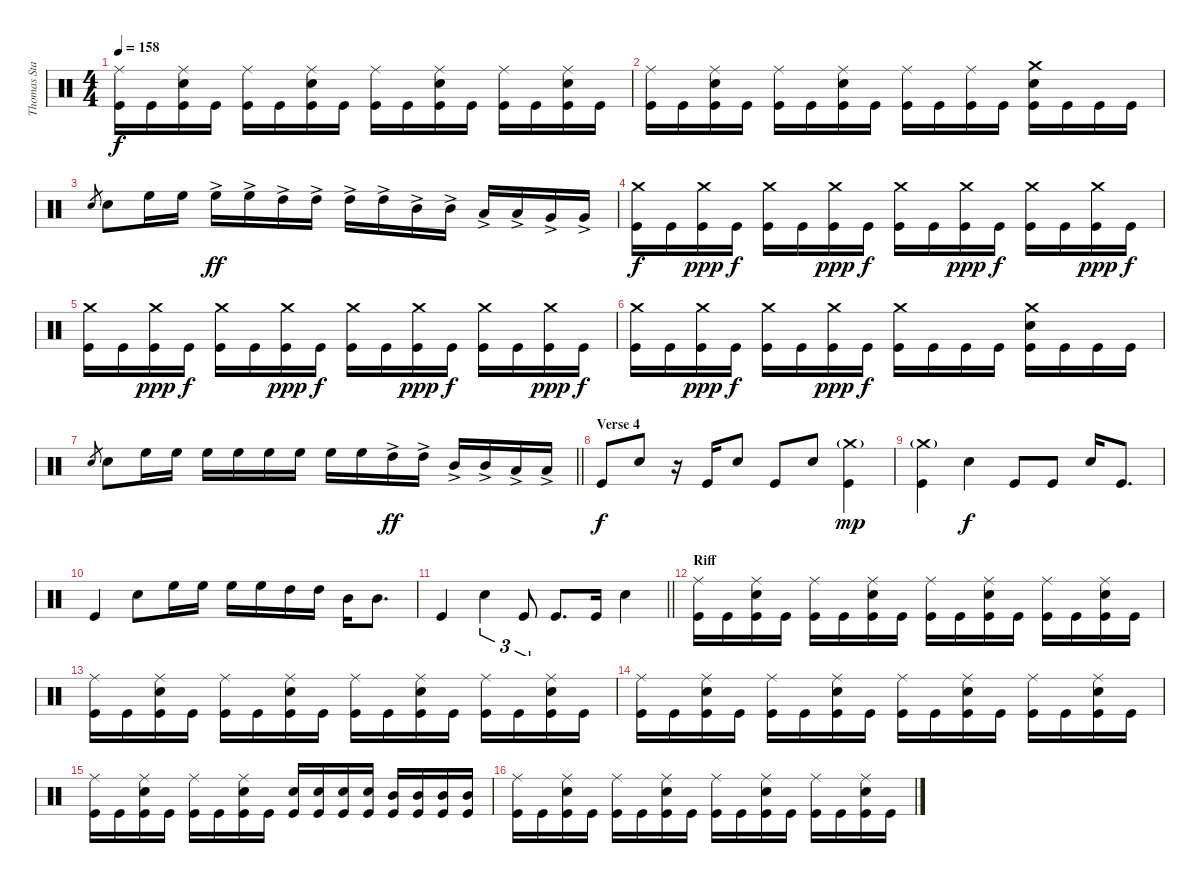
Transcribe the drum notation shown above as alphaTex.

\track ("Thomas Stauch" "Thomas Sta") {instrument percussion}
\staff {score}
\articulation defaults
\ts (4 4)
\tempo 158
\clef neutral
\ks c
("Ride (middle)" "Kick (hit)").16{dy f} "Kick (hit)".16 ("Ride (middle)" "Electric Snare (hit)" "Kick (hit)").16 "Kick (hit)".16 ("Ride (middle)" "Kick (hit)").16 "Kick (hit)".16 ("Ride (middle)" "Electric Snare (hit)" "Kick (hit)").16 "Kick (hit)".16 ("Ride (middle)" "Kick (hit)").16 "Kick (hit)".16 ("Ride (middle)" "Electric Snare (hit)" "Kick (hit)").16 "Kick (hit)".16 ("Ride (middle)" "Kick (hit)").16 "Kick (hit)".16 ("Ride (middle)" "Electric Snare (hit)" "Kick (hit)").16 "Kick (hit)".16 |
("Ride (middle)" "Kick (hit)").16 "Kick (hit)".16 ("Ride (middle)" "Electric Snare (hit)" "Kick (hit)").16 "Kick (hit)".16 ("Ride (middle)" "Kick (hit)").16 "Kick (hit)".16 ("Ride (middle)" "Electric Snare (hit)" "Kick (hit)").16 "Kick (hit)".16 ("Ride (middle)" "Kick (hit)").16 "Kick (hit)".16 ("Ride (middle)" "Kick (hit)").16 "Kick (hit)".16 ("Crash medium (hit)" "Electric Snare (hit)" "Kick (hit)").16 "Kick (hit)".16 "Kick (hit)".16 "Kick (hit)".16 |
"Electric Snare (hit)".8{gr} "Electric Snare (hit)".8 "High Floor Tom (hit)".16 "High Floor Tom (hit)".16 "High Floor Tom (hit)"{ac}.16{dy ff} "High Floor Tom (hit)"{ac}.16 "High Tom (hit)"{ac}.16 "High Tom (hit)"{ac}.16 "High Tom (hit)"{ac}.16 "High Tom (hit)"{ac}.16 "Mid Tom (hit)"{ac}.16 "Mid Tom (hit)"{ac}.16 "Low Tom (hit)"{ac}.16 "Low Tom (hit)"{ac}.16 "Very Low Tom (hit)"{ac}.16 "Very Low Tom (hit)"{ac}.16 |
("Crash medium (hit)" "Kick (hit)").16{dy f} "Kick (hit)".16 ("Crash medium (hit)" "Kick (hit)").16{dy ppp} "Kick (hit)".16{dy f} ("Crash medium (hit)" "Kick (hit)").16 "Kick (hit)".16 ("Crash medium (hit)" "Kick (hit)").16{dy ppp} "Kick (hit)".16{dy f} ("Crash medium (hit)" "Kick (hit)").16 "Kick (hit)".16 ("Crash medium (hit)" "Kick (hit)").16{dy ppp} "Kick (hit)".16{dy f} ("Crash medium (hit)" "Kick (hit)").16 "Kick (hit)".16 ("Crash medium (hit)" "Kick (hit)").16{dy ppp} "Kick (hit)".16{dy f} |
("Crash medium (hit)" "Kick (hit)").16 "Kick (hit)".16 ("Crash medium (hit)" "Kick (hit)").16{dy ppp} "Kick (hit)".16{dy f} ("Crash medium (hit)" "Kick (hit)").16 "Kick (hit)".16 ("Crash medium (hit)" "Kick (hit)").16{dy ppp} "Kick (hit)".16{dy f} ("Crash medium (hit)" "Kick (hit)").16 "Kick (hit)".16 ("Crash medium (hit)" "Kick (hit)").16{dy ppp} "Kick (hit)".16{dy f} ("Crash medium (hit)" "Kick (hit)").16 "Kick (hit)".16 ("Crash medium (hit)" "Kick (hit)").16{dy ppp} "Kick (hit)".16{dy f} |
("Crash medium (hit)" "Kick (hit)").16 "Kick (hit)".16 ("Crash medium (hit)" "Kick (hit)").16{dy ppp} "Kick (hit)".16{dy f} ("Crash medium (hit)" "Kick (hit)").16 "Kick (hit)".16 ("Crash medium (hit)" "Kick (hit)").16{dy ppp} "Kick (hit)".16{dy f} ("Crash medium (hit)" "Kick (hit)").16 "Kick (hit)".16 "Kick (hit)".16 "Kick (hit)".16 ("Crash medium (hit)" "Electric Snare (hit)" "Kick (hit)").16 "Kick (hit)".16 "Kick (hit)".16 "Kick (hit)".16 |
\barLineRight lightlight "Electric Snare (hit)".8{gr} "Electric Snare (hit)".8 "High Floor Tom (hit)".16 "High Floor Tom (hit)".16 "High Floor Tom (hit)".16 "High Floor Tom (hit)".16 "High Floor Tom (hit)".16 "High Floor Tom (hit)".16 "High Floor Tom (hit)".16 "High Floor Tom (hit)".16 "High Tom (hit)"{ac}.16{dy ff} "High Tom (hit)"{ac}.16 "Mid Tom (hit)"{ac}.16 "Mid Tom (hit)"{ac}.16 "Low Tom (hit)"{ac}.16 "Low Tom (hit)"{ac}.16
|
\section ("" "Verse 4")
"Kick (hit)".8{dy f} "Electric Snare (hit)".8 r.16 "Kick (hit)".16 "Electric Snare (hit)".8 "Kick (hit)".8 "Electric Snare (hit)".8 ("Crash medium (hit)"{g} "Kick (hit)").4{dy mp} |
("Crash medium (hit)"{g} "Kick (hit)").4 "Electric Snare (hit)".4{dy f} "Kick (hit)".8 "Kick (hit)".8 "Electric Snare (hit)".16 "Kick (hit)".8{d} |
"Kick (hit)".4 "Electric Snare (hit)".8 "High Floor Tom (hit)".16 "High Floor Tom (hit)".16 "High Floor Tom (hit)".16 "High Floor Tom (hit)".16 "High Tom (hit)".16 "High Tom (hit)".16 "Mid Tom (hit)".16 "Mid Tom (hit)".8{d} |
\barLineRight lightlight "Kick (hit)".4 "Electric Snare (hit)".4{tu (3 2)} "Kick (hit)".8{tu (3 2)} "Kick (hit)".8{d} "Kick (hit)".16 "Electric Snare (hit)".4
|
\section ("" "Riff ")
("Ride (middle)" "Kick (hit)").16 "Kick (hit)".16 ("Ride (middle)" "Electric Snare (hit)" "Kick (hit)").16 "Kick (hit)".16 ("Ride (middle)" "Kick (hit)").16 "Kick (hit)".16 ("Ride (middle)" "Electric Snare (hit)" "Kick (hit)").16 "Kick (hit)".16 ("Ride (middle)" "Kick (hit)").16 "Kick (hit)".16 ("Ride (middle)" "Electric Snare (hit)" "Kick (hit)").16 "Kick (hit)".16 ("Ride (middle)" "Kick (hit)").16 "Kick (hit)".16 ("Ride (middle)" "Electric Snare (hit)" "Kick (hit)").16 "Kick (hit)".16 |
("Ride (middle)" "Kick (hit)").16 "Kick (hit)".16 ("Ride (middle)" "Electric Snare (hit)" "Kick (hit)").16 "Kick (hit)".16 ("Ride (middle)" "Kick (hit)").16 "Kick (hit)".16 ("Ride (middle)" "Electric Snare (hit)" "Kick (hit)").16 "Kick (hit)".16 ("Ride (middle)" "Kick (hit)").16 "Kick (hit)".16 ("Ride (middle)" "Electric Snare (hit)" "Kick (hit)").16 "Kick (hit)".16 ("Ride (middle)" "Kick (hit)").16 "Kick (hit)".16 ("Ride (middle)" "Electric Snare (hit)" "Kick (hit)").16 "Kick (hit)".16 |
("Ride (middle)" "Kick (hit)").16 "Kick (hit)".16 ("Ride (middle)" "Electric Snare (hit)" "Kick (hit)").16 "Kick (hit)".16 ("Ride (middle)" "Kick (hit)").16 "Kick (hit)".16 ("Ride (middle)" "Electric Snare (hit)" "Kick (hit)").16 "Kick (hit)".16 ("Ride (middle)" "Kick (hit)").16 "Kick (hit)".16 ("Ride (middle)" "Electric Snare (hit)" "Kick (hit)").16 "Kick (hit)".16 ("Ride (middle)" "Kick (hit)").16 "Kick (hit)".16 ("Ride (middle)" "Electric Snare (hit)" "Kick (hit)").16 "Kick (hit)".16 |
("Ride (middle)" "Kick (hit)").16 "Kick (hit)".16 ("Ride (middle)" "Electric Snare (hit)" "Kick (hit)").16 "Kick (hit)".16 ("Ride (middle)" "Kick (hit)").16 "Kick (hit)".16 ("Ride (middle)" "Electric Snare (hit)" "Kick (hit)").16 "Kick (hit)".16 ("Electric Snare (hit)" "Kick (hit)").16 ("Electric Snare (hit)" "Kick (hit)").16 ("Electric Snare (hit)" "Kick (hit)").16 ("Electric Snare (hit)" "Kick (hit)").16 ("Mid Tom (hit)" "Kick (hit)").16 ("Mid Tom (hit)" "Kick (hit)").16 ("Mid Tom (hit)" "Kick (hit)").16 ("Mid Tom (hit)" "Kick (hit)").16 |
("Ride (middle)" "Kick (hit)").16 "Kick (hit)".16 ("Ride (middle)" "Electric Snare (hit)" "Kick (hit)").16 "Kick (hit)".16 ("Ride (middle)" "Kick (hit)").16 "Kick (hit)".16 ("Ride (middle)" "Electric Snare (hit)" "Kick (hit)").16 "Kick (hit)".16 ("Ride (middle)" "Kick (hit)").16 "Kick (hit)".16 ("Ride (middle)" "Electric Snare (hit)" "Kick (hit)").16 "Kick (hit)".16 ("Ride (middle)" "Kick (hit)").16 "Kick (hit)".16 ("Ride (middle)" "Electric Snare (hit)" "Kick (hit)").16 "Kick (hit)".16
